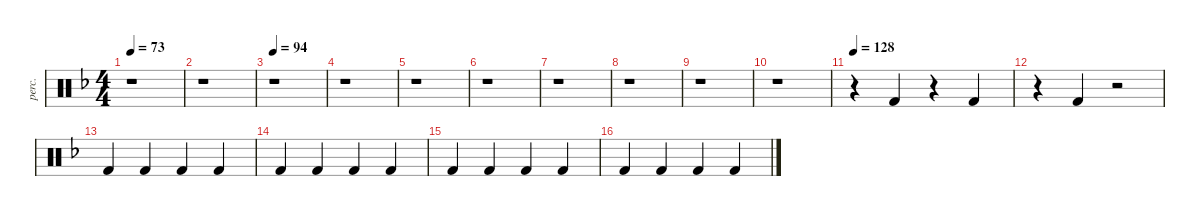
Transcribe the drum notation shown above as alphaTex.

\defaultSystemsLayout 2
\hideDynamics
\bracketExtendMode groupsimilarinstruments
\otherSystemsTrackNameOrientation horizontal
\track ("Guitar Percussion" "perc.") {instrument percussion}
\staff {score}
\articulation defaults
\ts (4 4)
\scale
1.0376
\tempo 73
\accidentals auto
\clef neutral
\ottava regular
\simile none
\ks dminor
r.1{dy mf} |
\scale
0.9624 r.1 |
\scale
1.04549
\tempo 94
r.1 |
\scale
0.954505 r.1 |
\scale
1.04549 r.1 |
\scale
0.954505 r.1 |
\scale
1.04549 r.1 |
\scale
0.954505 r.1 |
\scale
1.04549 r.1 |
\scale
0.954505 r.1 |
\scale
1.04549
\tempo 128
r.4 "Kick (hit) 2"{acc forcenatural}.4 r.4 "Kick (hit) 2"{acc forcenatural}.4 |
\scale
0.954505 r.4 "Kick (hit) 2"{acc forcenatural}.4 r.2 |
\scale
1.04549 "Kick (hit) 2"{acc forcenatural}.4 "Kick (hit) 2"{acc forcenatural}.4 "Kick (hit) 2"{acc forcenatural}.4 "Kick (hit) 2"{acc forcenatural}.4 |
\scale
0.954505 "Kick (hit) 2"{acc forcenatural}.4 "Kick (hit) 2"{acc forcenatural}.4 "Kick (hit) 2"{acc forcenatural}.4 "Kick (hit) 2"{acc forcenatural}.4 |
\scale
1.04549 "Kick (hit) 2"{acc forcenatural}.4 "Kick (hit) 2"{acc forcenatural}.4 "Kick (hit) 2"{acc forcenatural}.4 "Kick (hit) 2"{acc forcenatural}.4 |
\scale
0.954505 "Kick (hit) 2"{acc forcenatural}.4 "Kick (hit) 2"{acc forcenatural}.4 "Kick (hit) 2"{acc forcenatural}.4 "Kick (hit) 2"{acc forcenatural}.4
